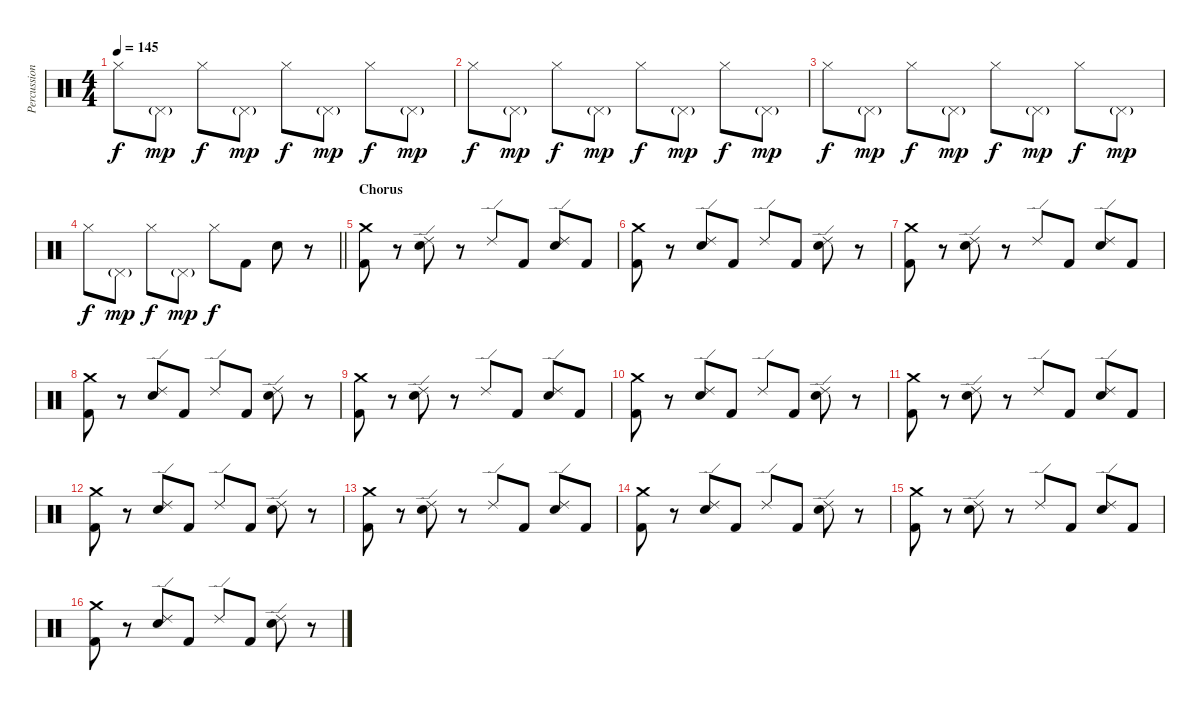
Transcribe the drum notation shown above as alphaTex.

\track ("Percussion" "Percussion") {instrument percussion}
\staff {score}
\articulation defaults
\ts (4 4)
\tempo 145
\clef neutral
\ks c "Hi-Hat (closed)".8{dy f} "Pedal Hi-Hat (hit)"{g}.8{dy mp} "Hi-Hat (closed)".8{dy f} "Pedal Hi-Hat (hit)"{g}.8{dy mp} "Hi-Hat (closed)".8{dy f} "Pedal Hi-Hat (hit)"{g}.8{dy mp} "Hi-Hat (closed)".8{dy f} "Pedal Hi-Hat (hit)"{g}.8{dy mp}
|
"Hi-Hat (closed)".8{dy f} "Pedal Hi-Hat (hit)"{g}.8{dy mp} "Hi-Hat (closed)".8{dy f} "Pedal Hi-Hat (hit)"{g}.8{dy mp} "Hi-Hat (closed)".8{dy f} "Pedal Hi-Hat (hit)"{g}.8{dy mp} "Hi-Hat (closed)".8{dy f} "Pedal Hi-Hat (hit)"{g}.8{dy mp} |
"Hi-Hat (closed)".8{dy f} "Pedal Hi-Hat (hit)"{g}.8{dy mp} "Hi-Hat (closed)".8{dy f} "Pedal Hi-Hat (hit)"{g}.8{dy mp} "Hi-Hat (closed)".8{dy f} "Pedal Hi-Hat (hit)"{g}.8{dy mp} "Hi-Hat (closed)".8{dy f} "Pedal Hi-Hat (hit)"{g}.8{dy mp} |
\barLineRight lightlight "Hi-Hat (closed)".8{dy f} "Pedal Hi-Hat (hit)"{g}.8{dy mp} "Hi-Hat (closed)".8{dy f} "Pedal Hi-Hat (hit)"{g}.8{dy mp} "Hi-Hat (closed)".8{dy f} "Kick (hit) 2".8 "Electric Snare (hit)".8
r.8 |
\section ("" "Chorus")
("Crash medium (hit)" "Kick (hit) 2").8 r.8 ("Ride (edge) 2" "Electric Snare (hit)").8 r.8 "Ride (edge) 2".8 "Kick (hit) 2".8 ("Ride (edge) 2" "Electric Snare (hit)").8 "Kick (hit) 2".8 |
("Crash medium (hit)" "Kick (hit) 2").8 r.8 ("Ride (edge) 2" "Electric Snare (hit)").8 "Kick (hit) 2".8 "Ride (edge) 2".8 "Kick (hit) 2".8 ("Ride (edge) 2" "Electric Snare (hit)").8 r.8 |
("Crash medium (hit)" "Kick (hit) 2").8 r.8 ("Ride (edge) 2" "Electric Snare (hit)").8 r.8 "Ride (edge) 2".8 "Kick (hit) 2".8 ("Ride (edge) 2" "Electric Snare (hit)").8 "Kick (hit) 2".8 |
("Crash medium (hit)" "Kick (hit) 2").8 r.8 ("Ride (edge) 2" "Electric Snare (hit)").8 "Kick (hit) 2".8 "Ride (edge) 2".8 "Kick (hit) 2".8 ("Ride (edge) 2" "Electric Snare (hit)").8 r.8 |
("Crash medium (hit)" "Kick (hit) 2").8 r.8 ("Ride (edge) 2" "Electric Snare (hit)").8 r.8 "Ride (edge) 2".8 "Kick (hit) 2".8 ("Ride (edge) 2" "Electric Snare (hit)").8 "Kick (hit) 2".8 |
("Crash medium (hit)" "Kick (hit) 2").8 r.8 ("Ride (edge) 2" "Electric Snare (hit)").8 "Kick (hit) 2".8 "Ride (edge) 2".8 "Kick (hit) 2".8 ("Ride (edge) 2" "Electric Snare (hit)").8 r.8 |
("Crash medium (hit)" "Kick (hit) 2").8 r.8 ("Ride (edge) 2" "Electric Snare (hit)").8 r.8 "Ride (edge) 2".8 "Kick (hit) 2".8 ("Ride (edge) 2" "Electric Snare (hit)").8 "Kick (hit) 2".8 |
("Crash medium (hit)" "Kick (hit) 2").8 r.8 ("Ride (edge) 2" "Electric Snare (hit)").8 "Kick (hit) 2".8 "Ride (edge) 2".8 "Kick (hit) 2".8 ("Ride (edge) 2" "Electric Snare (hit)").8 r.8 |
("Crash medium (hit)" "Kick (hit) 2").8 r.8 ("Ride (edge) 2" "Electric Snare (hit)").8 r.8 "Ride (edge) 2".8 "Kick (hit) 2".8 ("Ride (edge) 2" "Electric Snare (hit)").8 "Kick (hit) 2".8 |
("Crash medium (hit)" "Kick (hit) 2").8 r.8 ("Ride (edge) 2" "Electric Snare (hit)").8 "Kick (hit) 2".8 "Ride (edge) 2".8 "Kick (hit) 2".8 ("Ride (edge) 2" "Electric Snare (hit)").8 r.8 |
("Crash medium (hit)" "Kick (hit) 2").8 r.8 ("Ride (edge) 2" "Electric Snare (hit)").8 r.8 "Ride (edge) 2".8 "Kick (hit) 2".8 ("Ride (edge) 2" "Electric Snare (hit)").8 "Kick (hit) 2".8 |
("Crash medium (hit)" "Kick (hit) 2").8 r.8 ("Ride (edge) 2" "Electric Snare (hit)").8 "Kick (hit) 2".8 "Ride (edge) 2".8 "Kick (hit) 2".8 ("Ride (edge) 2" "Electric Snare (hit)").8 r.8
